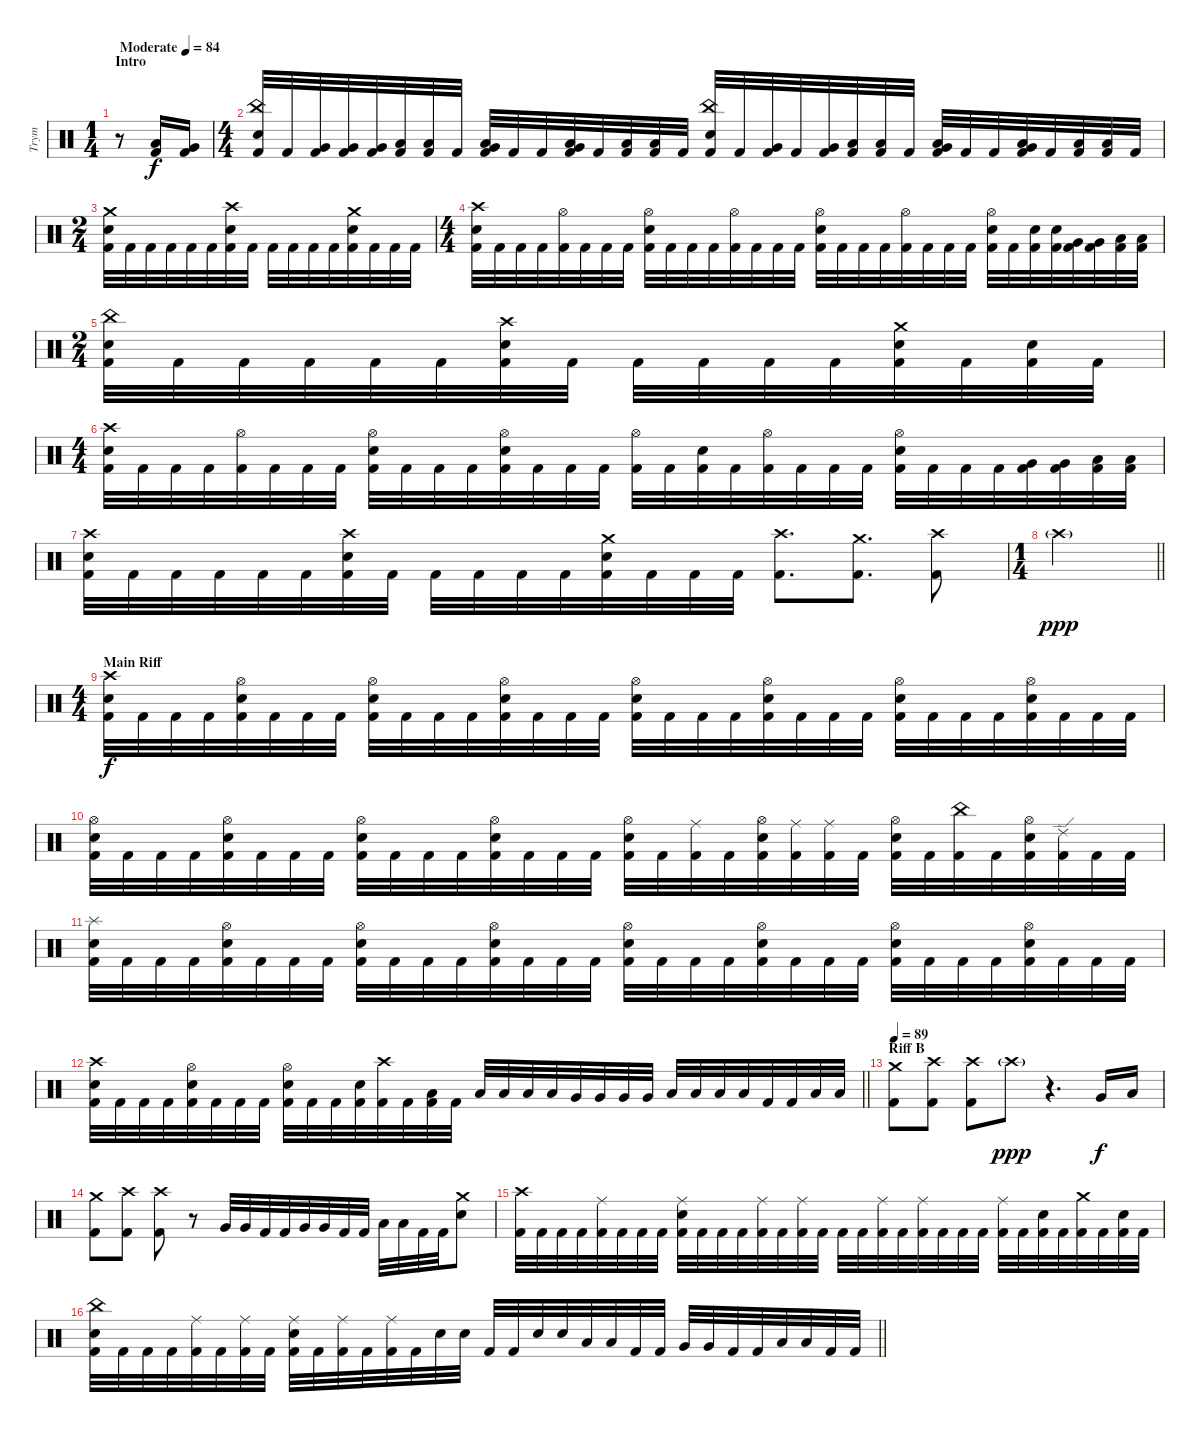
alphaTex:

\track ("Trym" "Trym") {instrument percussion}
\staff {score}
\articulation defaults
\ts (1 4)
\section ("" "Intro")
\tempo (84 "Moderate")
\clef neutral
\ks c
r.8{dy f} ("Low Floor Tom (hit)" "Kick (hit) 2").16 ("Very Low Tom (hit)" "Kick (hit) 2").16 |
\ts (4 4)
("China (hit)" "Snare (hit) 2" "Kick (hit) 2").32 "Kick (hit) 2".32 ("Very Low Tom (hit)" "Kick (hit) 2").32 ("Very Low Tom (hit)" "Kick (hit) 2").32 ("Very Low Tom (hit)" "Kick (hit) 2").32 ("Low Floor Tom (hit)" "Kick (hit) 2").32 ("Low Floor Tom (hit)" "Kick (hit) 2").32 "Kick (hit) 2".32 ("Very Low Tom (hit)" "Low Floor Tom (hit)" "Kick (hit) 2").32 "Kick (hit) 2".32 "Kick (hit) 2".32 ("Very Low Tom (hit)" "Low Floor Tom (hit)" "Kick (hit) 2").32 "Kick (hit) 2".32 ("Low Floor Tom (hit)" "Kick (hit) 2").32 ("Low Floor Tom (hit)" "Kick (hit) 2").32 "Kick (hit) 2".32 ("China (hit)" "Snare (hit) 2" "Kick (hit) 2").32 "Kick (hit) 2".32 ("Very Low Tom (hit)" "Kick (hit) 2").32 "Kick (hit) 2".32 ("Very Low Tom (hit)" "Kick (hit) 2").32 ("Low Floor Tom (hit)" "Kick (hit) 2").32 ("Low Floor Tom (hit)" "Kick (hit) 2").32 "Kick (hit) 2".32 ("Very Low Tom (hit)" "Low Floor Tom (hit)" "Kick (hit) 2").32 "Kick (hit) 2".32 "Kick (hit) 2".32 ("Very Low Tom (hit)" "Low Floor Tom (hit)" "Kick (hit) 2").32 "Kick (hit) 2".32 ("Low Floor Tom (hit)" "Kick (hit) 2").32 ("Low Floor Tom (hit)" "Kick (hit) 2").32 "Kick (hit) 2".32 |
\ts (2 4)
("Crash medium (hit)" "Snare (hit) 2" "Kick (hit) 2").32 "Kick (hit) 2".32 "Kick (hit) 2".32 "Kick (hit) 2".32 "Kick (hit) 2".32 "Kick (hit) 2".32 ("Crash high (hit)" "Snare (hit) 2" "Kick (hit) 2").32 "Kick (hit) 2".32 "Kick (hit) 2".32 "Kick (hit) 2".32 "Kick (hit) 2".32 "Kick (hit) 2".32 ("Crash medium (hit)" "Snare (hit) 2" "Kick (hit) 2").32 "Kick (hit) 2".32 "Kick (hit) 2".32 "Kick (hit) 2".32 |
\ts (4 4)
("Crash high (hit)" "Snare (hit) 2" "Kick (hit) 2").32 "Kick (hit) 2".32 "Kick (hit) 2".32 "Kick (hit) 2".32 ("Hi-Hat (open)" "Kick (hit) 2").32 "Kick (hit) 2".32 "Kick (hit) 2".32 "Kick (hit) 2".32 ("Hi-Hat (open)" "Snare (hit) 2" "Kick (hit) 2").32 "Kick (hit) 2".32 "Kick (hit) 2".32 "Kick (hit) 2".32 ("Hi-Hat (open)" "Kick (hit) 2").32 "Kick (hit) 2".32 "Kick (hit) 2".32 "Kick (hit) 2".32 ("Hi-Hat (open)" "Snare (hit) 2" "Kick (hit) 2").32 "Kick (hit) 2".32 "Kick (hit) 2".32 "Kick (hit) 2".32 ("Hi-Hat (open)" "Kick (hit) 2").32 "Kick (hit) 2".32 "Kick (hit) 2".32 "Kick (hit) 2".32 ("Hi-Hat (open)" "Snare (hit) 2" "Kick (hit) 2").32 "Kick (hit) 2".32 ("Snare (hit) 2" "Kick (hit) 2").32 ("Snare (hit) 2" "Kick (hit) 2").32 ("Very Low Tom (hit)" "Kick (hit) 2").32 ("Very Low Tom (hit)" "Kick (hit) 2").32 ("Low Floor Tom (hit)" "Kick (hit) 2").32 ("Low Floor Tom (hit)" "Kick (hit) 2").32 |
\ts (2 4)
("China (hit)" "Snare (hit) 2" "Kick (hit) 2").32 "Kick (hit) 2".32 "Kick (hit) 2".32 "Kick (hit) 2".32 "Kick (hit) 2".32 "Kick (hit) 2".32 ("Crash high (hit)" "Snare (hit) 2" "Kick (hit) 2").32 "Kick (hit) 2".32 "Kick (hit) 2".32 "Kick (hit) 2".32 "Kick (hit) 2".32 "Kick (hit) 2".32 ("Crash medium (hit)" "Snare (hit) 2" "Kick (hit) 2").32 "Kick (hit) 2".32 ("Snare (hit) 2" "Kick (hit) 2").32 "Kick (hit) 2".32 |
\ts (4 4)
("Crash high (hit)" "Snare (hit) 2" "Kick (hit) 2").32 "Kick (hit) 2".32 "Kick (hit) 2".32 "Kick (hit) 2".32 ("Hi-Hat (open)" "Kick (hit) 2").32 "Kick (hit) 2".32 "Kick (hit) 2".32 "Kick (hit) 2".32 ("Hi-Hat (open)" "Snare (hit) 2" "Kick (hit) 2").32 "Kick (hit) 2".32 "Kick (hit) 2".32 "Kick (hit) 2".32 ("Hi-Hat (open)" "Snare (hit) 2" "Kick (hit) 2").32 "Kick (hit) 2".32 "Kick (hit) 2".32 "Kick (hit) 2".32 ("Hi-Hat (open)" "Kick (hit) 2").32 "Kick (hit) 2".32 ("Snare (hit) 2" "Kick (hit) 2").32 "Kick (hit) 2".32 ("Hi-Hat (open)" "Kick (hit) 2").32 "Kick (hit) 2".32 "Kick (hit) 2".32 "Kick (hit) 2".32 ("Hi-Hat (open)" "Snare (hit) 2" "Kick (hit) 2").32 "Kick (hit) 2".32 "Kick (hit) 2".32 "Kick (hit) 2".32 ("Very Low Tom (hit)" "Kick (hit) 2").32 ("Very Low Tom (hit)" "Kick (hit) 2").32 ("Low Floor Tom (hit)" "Kick (hit) 2").32 ("Low Floor Tom (hit)" "Kick (hit) 2").32 |
("Crash high (hit)" "Snare (hit) 2" "Kick (hit) 2").32 "Kick (hit) 2".32 "Kick (hit) 2".32 "Kick (hit) 2".32 "Kick (hit) 2".32 "Kick (hit) 2".32 ("Crash high (hit)" "Snare (hit) 2" "Kick (hit) 2").32 "Kick (hit) 2".32 "Kick (hit) 2".32 "Kick (hit) 2".32 "Kick (hit) 2".32 "Kick (hit) 2".32 ("Crash medium (hit)" "Snare (hit) 2" "Kick (hit) 2").32 "Kick (hit) 2".32 "Kick (hit) 2".32 "Kick (hit) 2".32 ("Crash high (hit)" "Kick (hit) 2").8{d} ("Crash medium (hit)" "Kick (hit) 2").8{d} ("Crash high (hit)" "Kick (hit) 2").8 |
\ts (1 4)
\barLineRight lightlight "Crash high (hit)"{g}.4{dy ppp}
|
\ts (4 4)
\section ("" "Main Riff")
("Crash high (hit)" "Snare (hit) 2" "Kick (hit) 2").32{dy f} "Kick (hit) 2".32 "Kick (hit) 2".32 "Kick (hit) 2".32 ("Hi-Hat (open)" "Snare (hit) 2" "Kick (hit) 2").32 "Kick (hit) 2".32 "Kick (hit) 2".32 "Kick (hit) 2".32 ("Hi-Hat (open)" "Snare (hit) 2" "Kick (hit) 2").32 "Kick (hit) 2".32 "Kick (hit) 2".32 "Kick (hit) 2".32 ("Hi-Hat (open)" "Snare (hit) 2" "Kick (hit) 2").32 "Kick (hit) 2".32 "Kick (hit) 2".32 "Kick (hit) 2".32 ("Hi-Hat (open)" "Snare (hit) 2" "Kick (hit) 2").32 "Kick (hit) 2".32 "Kick (hit) 2".32 "Kick (hit) 2".32 ("Hi-Hat (open)" "Snare (hit) 2" "Kick (hit) 2").32 "Kick (hit) 2".32 "Kick (hit) 2".32 "Kick (hit) 2".32 ("Hi-Hat (open)" "Snare (hit) 2" "Kick (hit) 2").32 "Kick (hit) 2".32 "Kick (hit) 2".32 "Kick (hit) 2".32 ("Hi-Hat (open)" "Snare (hit) 2" "Kick (hit) 2").32 "Kick (hit) 2".32 "Kick (hit) 2".32 "Kick (hit) 2".32 |
("Hi-Hat (open)" "Snare (hit) 2" "Kick (hit) 2").32 "Kick (hit) 2".32 "Kick (hit) 2".32 "Kick (hit) 2".32 ("Hi-Hat (open)" "Snare (hit) 2" "Kick (hit) 2").32 "Kick (hit) 2".32 "Kick (hit) 2".32 "Kick (hit) 2".32 ("Hi-Hat (open)" "Snare (hit) 2" "Kick (hit) 2").32 "Kick (hit) 2".32 "Kick (hit) 2".32 "Kick (hit) 2".32 ("Hi-Hat (open)" "Snare (hit) 2" "Kick (hit) 2").32 "Kick (hit) 2".32 "Kick (hit) 2".32 "Kick (hit) 2".32 ("Hi-Hat (open)" "Snare (hit) 2" "Kick (hit) 2").32 "Kick (hit) 2".32 ("Ride (middle)" "Kick (hit) 2").32 "Kick (hit) 2".32 ("Hi-Hat (open)" "Snare (hit) 2" "Kick (hit) 2").32 ("Ride (middle)" "Kick (hit) 2").32 ("Ride (middle)" "Kick (hit) 2").32 "Kick (hit) 2".32 ("Hi-Hat (open)" "Snare (hit) 2" "Kick (hit) 2").32 "Kick (hit) 2".32 ("China (hit)" "Kick (hit) 2").32 "Kick (hit) 2".32 ("Hi-Hat (open)" "Snare (hit) 2" "Kick (hit) 2").32 ("Ride (edge) 2" "Kick (hit) 2").32 "Kick (hit) 2".32 "Kick (hit) 2".32 |
("Splash (hit)" "Snare (hit) 2" "Kick (hit) 2").32 "Kick (hit) 2".32 "Kick (hit) 2".32 "Kick (hit) 2".32 ("Hi-Hat (open)" "Snare (hit) 2" "Kick (hit) 2").32 "Kick (hit) 2".32 "Kick (hit) 2".32 "Kick (hit) 2".32 ("Hi-Hat (open)" "Snare (hit) 2" "Kick (hit) 2").32 "Kick (hit) 2".32 "Kick (hit) 2".32 "Kick (hit) 2".32 ("Hi-Hat (open)" "Snare (hit) 2" "Kick (hit) 2").32 "Kick (hit) 2".32 "Kick (hit) 2".32 "Kick (hit) 2".32 ("Hi-Hat (open)" "Snare (hit) 2" "Kick (hit) 2").32 "Kick (hit) 2".32 "Kick (hit) 2".32 "Kick (hit) 2".32 ("Hi-Hat (open)" "Snare (hit) 2" "Kick (hit) 2").32 "Kick (hit) 2".32 "Kick (hit) 2".32 "Kick (hit) 2".32 ("Hi-Hat (open)" "Snare (hit) 2" "Kick (hit) 2").32 "Kick (hit) 2".32 "Kick (hit) 2".32 "Kick (hit) 2".32 ("Hi-Hat (open)" "Snare (hit) 2" "Kick (hit) 2").32 "Kick (hit) 2".32 "Kick (hit) 2".32 "Kick (hit) 2".32 |
\barLineRight lightlight
("Crash high (hit)" "Snare (hit) 2" "Kick (hit) 2").32 "Kick (hit) 2".32 "Kick (hit) 2".32 "Kick (hit) 2".32 ("Hi-Hat (open)" "Snare (hit) 2" "Kick (hit) 2").32 "Kick (hit) 2".32 "Kick (hit) 2".32 "Kick (hit) 2".32 ("Hi-Hat (open)" "Snare (hit) 2" "Kick (hit) 2").32 "Kick (hit) 2".32 "Kick (hit) 2".32 ("Snare (hit) 2" "Kick (hit) 2").32 ("Crash high (hit)" "Kick (hit) 2").32 "Kick (hit) 2".32 ("Low Floor Tom (hit)" "Kick (hit) 2").32 "Kick (hit) 2".32 "Low Tom (hit)".32 "Low Tom (hit)".32 "Low Tom (hit)".32 "Low Tom (hit)".32 "Very Low Tom (hit)".32 "Very Low Tom (hit)".32 "Very Low Tom (hit)".32 "Very Low Tom (hit)".32 "Low Floor Tom (hit)".32 "Low Floor Tom (hit)".32 "Low Floor Tom (hit)".32 "Low Floor Tom (hit)".32 "Kick (hit) 2".32 "Kick (hit) 2".32 "Low Floor Tom (hit)".32 "Low Floor Tom (hit)".32 |
\section ("" "Riff B")
\tempo 89
("Crash medium (hit)" "Kick (hit) 2").8 ("Crash high (hit)" "Kick (hit) 2").8 ("Crash high (hit)" "Kick (hit) 2").8 "Crash high (hit)"{g}.8{dy ppp} r.4{d} "Very Low Tom (hit)".16{dy f} "Low Floor Tom (hit)".16 |
("Crash medium (hit)" "Kick (hit) 2").8 ("Crash high (hit)" "Kick (hit) 2").8 ("Crash high (hit)" "Kick (hit) 2").8 r.8 "Very Low Tom (hit)".32 "Very Low Tom (hit)".32 "Kick (hit) 2".32 "Kick (hit) 2".32 "Very Low Tom (hit)".32 "Very Low Tom (hit)".32 "Kick (hit) 2".32 "Kick (hit) 2".32 "Low Floor Tom (hit)".32 "Low Floor Tom (hit)".32 "Kick (hit) 2".32 "Kick (hit) 2".32 ("Crash medium (hit)" "Snare (hit) 2").8 |
("Crash high (hit)" "Kick (hit) 2").32 "Kick (hit) 2".32 "Kick (hit) 2".32 "Kick (hit) 2".32 ("Ride (middle)" "Kick (hit) 2").32 "Kick (hit) 2".32 "Kick (hit) 2".32 "Kick (hit) 2".32 ("Ride (middle)" "Snare (hit) 2" "Kick (hit) 2").32 "Kick (hit) 2".32 "Kick (hit) 2".32 "Kick (hit) 2".32 ("Ride (middle)" "Kick (hit) 2").32 "Kick (hit) 2".32 ("Ride (middle)" "Kick (hit) 2").32 "Kick (hit) 2".32 "Kick (hit) 2".32 "Kick (hit) 2".32 ("Ride (middle)" "Kick (hit) 2").32 "Kick (hit) 2".32 ("Ride (middle)" "Kick (hit) 2").32 "Kick (hit) 2".32 "Kick (hit) 2".32 "Kick (hit) 2".32 ("Ride (middle)" "Kick (hit) 2").32 "Kick (hit) 2".32 ("Snare (hit) 2" "Kick (hit) 2").32 "Kick (hit) 2".32 ("Crash medium (hit)" "Kick (hit) 2").32 "Kick (hit) 2".32 ("Snare (hit) 2" "Kick (hit) 2").32 "Kick (hit) 2".32 |
\barLineRight lightlight
("China (hit)" "Snare (hit) 2" "Kick (hit) 2").32 "Kick (hit) 2".32 "Kick (hit) 2".32 "Kick (hit) 2".32 ("Ride (middle)" "Kick (hit) 2").32 "Kick (hit) 2".32 ("Ride (middle)" "Kick (hit) 2").32 "Kick (hit) 2".32 ("Ride (middle)" "Snare (hit) 2" "Kick (hit) 2").32 "Kick (hit) 2".32 ("Ride (middle)" "Kick (hit) 2").32 "Kick (hit) 2".32 ("Ride (middle)" "Kick (hit) 2").32 "Kick (hit) 2".32 "Snare (hit) 2".32 "Snare (hit) 2".32 "Kick (hit) 2".32 "Kick (hit) 2".32 "Snare (hit) 2".32 "Snare (hit) 2".32 "Low Tom (hit)".32 "Low Tom (hit)".32 "Kick (hit) 2".32 "Kick (hit) 2".32 "Very Low Tom (hit)".32 "Very Low Tom (hit)".32 "Kick (hit) 2".32 "Kick (hit) 2".32 "Low Floor Tom (hit)".32 "Low Floor Tom (hit)".32 "Kick (hit) 2".32 "Kick (hit) 2".32
